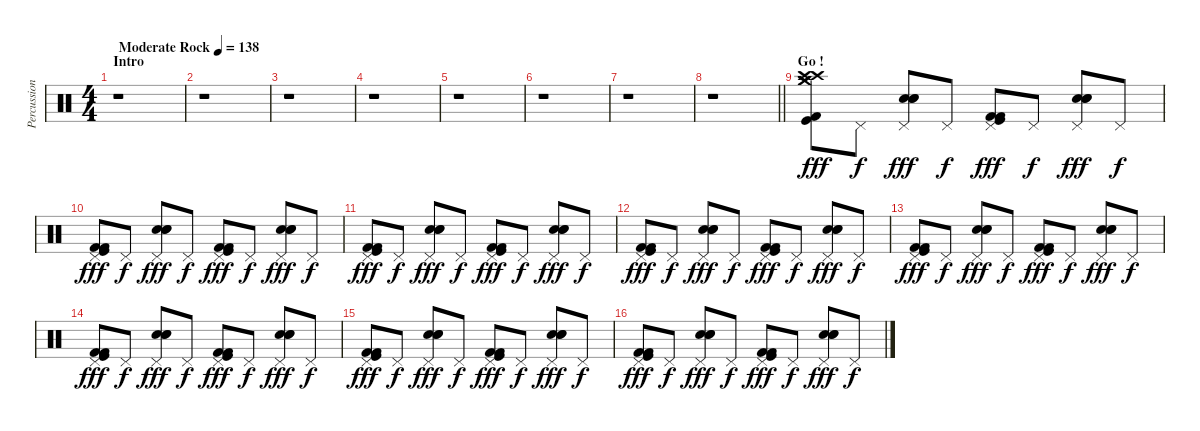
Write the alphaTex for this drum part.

\track ("Percussion" "Percussion") {instrument percussion}
\staff {score}
\articulation defaults
\ts (4 4)
\section ("" "Intro")
\tempo (138 "Moderate Rock")
\clef neutral
\ks c
r.1{dy fff} |
r.1 |
r.1 |
r.1 |
r.1 |
r.1 |
r.1 |
\barLineRight lightlight
r.1 |
\section ("" "Go !")
("Crash high (hit)" "Crash medium (hit)" "Kick (hit)" "Crash high (hit)" "Crash medium (hit)" "Kick (hit) 2").8 "Pedal Hi-Hat (hit)".8{dy f} ("Pedal Hi-Hat (hit)" "Electric Snare (hit)" "Snare (hit) 2" "Electric Snare (hit)").8{dy fff} "Pedal Hi-Hat (hit)".8{dy f} ("Pedal Hi-Hat (hit)" "Kick (hit) 2" "Kick (hit)" "Kick (hit) 2").8{dy fff} "Pedal Hi-Hat (hit)".8{dy f} ("Pedal Hi-Hat (hit)" "Electric Snare (hit)" "Snare (hit) 2" "Electric Snare (hit)").8{dy fff} "Pedal Hi-Hat (hit)".8{dy f} |
("Pedal Hi-Hat (hit)" "Kick (hit) 2" "Kick (hit)" "Kick (hit) 2").8{dy fff} "Pedal Hi-Hat (hit)".8{dy f} ("Pedal Hi-Hat (hit)" "Electric Snare (hit)" "Snare (hit) 2" "Electric Snare (hit)").8{dy fff} "Pedal Hi-Hat (hit)".8{dy f} ("Pedal Hi-Hat (hit)" "Kick (hit) 2" "Kick (hit)" "Kick (hit) 2").8{dy fff} "Pedal Hi-Hat (hit)".8{dy f} ("Pedal Hi-Hat (hit)" "Electric Snare (hit)" "Snare (hit) 2" "Electric Snare (hit)").8{dy fff} "Pedal Hi-Hat (hit)".8{dy f} |
("Pedal Hi-Hat (hit)" "Kick (hit) 2" "Kick (hit)" "Kick (hit) 2").8{dy fff} "Pedal Hi-Hat (hit)".8{dy f} ("Pedal Hi-Hat (hit)" "Electric Snare (hit)" "Snare (hit) 2" "Electric Snare (hit)").8{dy fff} "Pedal Hi-Hat (hit)".8{dy f} ("Pedal Hi-Hat (hit)" "Kick (hit) 2" "Kick (hit)" "Kick (hit) 2").8{dy fff} "Pedal Hi-Hat (hit)".8{dy f} ("Pedal Hi-Hat (hit)" "Electric Snare (hit)" "Snare (hit) 2" "Electric Snare (hit)").8{dy fff} "Pedal Hi-Hat (hit)".8{dy f} |
("Pedal Hi-Hat (hit)" "Kick (hit) 2" "Kick (hit)" "Kick (hit) 2").8{dy fff} "Pedal Hi-Hat (hit)".8{dy f} ("Pedal Hi-Hat (hit)" "Electric Snare (hit)" "Snare (hit) 2" "Electric Snare (hit)").8{dy fff} "Pedal Hi-Hat (hit)".8{dy f} ("Pedal Hi-Hat (hit)" "Kick (hit) 2" "Kick (hit)" "Kick (hit) 2").8{dy fff} "Pedal Hi-Hat (hit)".8{dy f} ("Pedal Hi-Hat (hit)" "Electric Snare (hit)" "Snare (hit) 2" "Electric Snare (hit)").8{dy fff} "Pedal Hi-Hat (hit)".8{dy f} |
("Pedal Hi-Hat (hit)" "Kick (hit) 2" "Kick (hit)" "Kick (hit) 2").8{dy fff} "Pedal Hi-Hat (hit)".8{dy f} ("Pedal Hi-Hat (hit)" "Electric Snare (hit)" "Snare (hit) 2" "Electric Snare (hit)").8{dy fff} "Pedal Hi-Hat (hit)".8{dy f} ("Pedal Hi-Hat (hit)" "Kick (hit) 2" "Kick (hit)" "Kick (hit) 2").8{dy fff} "Pedal Hi-Hat (hit)".8{dy f} ("Pedal Hi-Hat (hit)" "Electric Snare (hit)" "Snare (hit) 2" "Electric Snare (hit)").8{dy fff} "Pedal Hi-Hat (hit)".8{dy f} |
("Pedal Hi-Hat (hit)" "Kick (hit) 2" "Kick (hit)" "Kick (hit) 2").8{dy fff} "Pedal Hi-Hat (hit)".8{dy f} ("Pedal Hi-Hat (hit)" "Electric Snare (hit)" "Snare (hit) 2" "Electric Snare (hit)").8{dy fff} "Pedal Hi-Hat (hit)".8{dy f} ("Pedal Hi-Hat (hit)" "Kick (hit) 2" "Kick (hit)" "Kick (hit) 2").8{dy fff} "Pedal Hi-Hat (hit)".8{dy f} ("Pedal Hi-Hat (hit)" "Electric Snare (hit)" "Snare (hit) 2" "Electric Snare (hit)").8{dy fff} "Pedal Hi-Hat (hit)".8{dy f} |
("Pedal Hi-Hat (hit)" "Kick (hit) 2" "Kick (hit)" "Kick (hit) 2").8{dy fff} "Pedal Hi-Hat (hit)".8{dy f} ("Pedal Hi-Hat (hit)" "Electric Snare (hit)" "Snare (hit) 2" "Electric Snare (hit)").8{dy fff} "Pedal Hi-Hat (hit)".8{dy f} ("Pedal Hi-Hat (hit)" "Kick (hit) 2" "Kick (hit)" "Kick (hit) 2").8{dy fff} "Pedal Hi-Hat (hit)".8{dy f} ("Pedal Hi-Hat (hit)" "Electric Snare (hit)" "Snare (hit) 2" "Electric Snare (hit)").8{dy fff} "Pedal Hi-Hat (hit)".8{dy f} |
("Pedal Hi-Hat (hit)" "Kick (hit) 2" "Kick (hit)" "Kick (hit) 2").8{dy fff} "Pedal Hi-Hat (hit)".8{dy f} ("Pedal Hi-Hat (hit)" "Electric Snare (hit)" "Snare (hit) 2" "Electric Snare (hit)").8{dy fff} "Pedal Hi-Hat (hit)".8{dy f} ("Pedal Hi-Hat (hit)" "Kick (hit) 2" "Kick (hit)" "Kick (hit) 2").8{dy fff} "Pedal Hi-Hat (hit)".8{dy f} ("Pedal Hi-Hat (hit)" "Electric Snare (hit)" "Snare (hit) 2" "Electric Snare (hit)").8{dy fff} "Pedal Hi-Hat (hit)".8{dy f}
